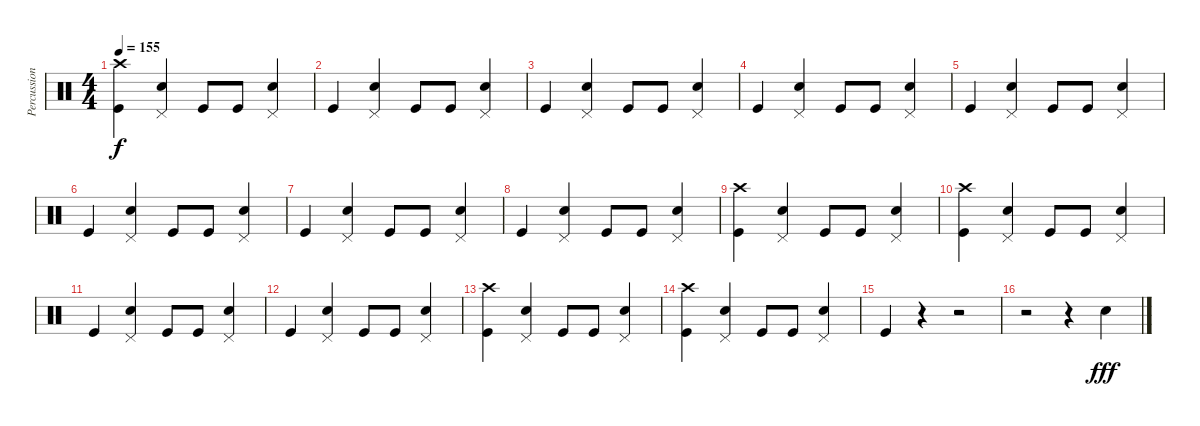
\track ("Percussion" "Percussion") {instrument percussion}
\staff {score}
\articulation defaults
\ts (4 4)
\tempo 155
\clef neutral
\ks c
("Kick (hit)" "Crash high (hit)").4{dy f} ("Snare (hit) 2" "Pedal Hi-Hat (hit)").4 "Kick (hit)".8 "Kick (hit)".8 ("Snare (hit) 2" "Pedal Hi-Hat (hit)").4 |
"Kick (hit)".4 ("Snare (hit) 2" "Pedal Hi-Hat (hit)").4 "Kick (hit)".8 "Kick (hit)".8 ("Snare (hit) 2" "Pedal Hi-Hat (hit)").4 |
"Kick (hit)".4 ("Snare (hit) 2" "Pedal Hi-Hat (hit)").4 "Kick (hit)".8 "Kick (hit)".8 ("Snare (hit) 2" "Pedal Hi-Hat (hit)").4 |
"Kick (hit)".4 ("Snare (hit) 2" "Pedal Hi-Hat (hit)").4 "Kick (hit)".8 "Kick (hit)".8 ("Snare (hit) 2" "Pedal Hi-Hat (hit)").4 |
"Kick (hit)".4 ("Snare (hit) 2" "Pedal Hi-Hat (hit)").4 "Kick (hit)".8 "Kick (hit)".8 ("Snare (hit) 2" "Pedal Hi-Hat (hit)").4 |
"Kick (hit)".4 ("Snare (hit) 2" "Pedal Hi-Hat (hit)").4 "Kick (hit)".8 "Kick (hit)".8 ("Snare (hit) 2" "Pedal Hi-Hat (hit)").4 |
"Kick (hit)".4 ("Snare (hit) 2" "Pedal Hi-Hat (hit)").4 "Kick (hit)".8 "Kick (hit)".8 ("Snare (hit) 2" "Pedal Hi-Hat (hit)").4 |
"Kick (hit)".4 ("Snare (hit) 2" "Pedal Hi-Hat (hit)").4 "Kick (hit)".8 "Kick (hit)".8 ("Snare (hit) 2" "Pedal Hi-Hat (hit)").4 |
("Kick (hit)" "Crash high (hit)").4 ("Snare (hit) 2" "Pedal Hi-Hat (hit)").4 "Kick (hit)".8 "Kick (hit)".8 ("Snare (hit) 2" "Pedal Hi-Hat (hit)").4 |
("Kick (hit)" "Crash high (hit)").4 ("Snare (hit) 2" "Pedal Hi-Hat (hit)").4 "Kick (hit)".8 "Kick (hit)".8 ("Snare (hit) 2" "Pedal Hi-Hat (hit)").4 |
"Kick (hit)".4 ("Snare (hit) 2" "Pedal Hi-Hat (hit)").4 "Kick (hit)".8 "Kick (hit)".8 ("Snare (hit) 2" "Pedal Hi-Hat (hit)").4 |
"Kick (hit)".4 ("Snare (hit) 2" "Pedal Hi-Hat (hit)").4 "Kick (hit)".8 "Kick (hit)".8 ("Snare (hit) 2" "Pedal Hi-Hat (hit)").4 |
("Kick (hit)" "Crash high (hit)").4 ("Snare (hit) 2" "Pedal Hi-Hat (hit)").4 "Kick (hit)".8 "Kick (hit)".8 ("Snare (hit) 2" "Pedal Hi-Hat (hit)").4 |
("Kick (hit)" "Crash high (hit)").4 ("Snare (hit) 2" "Pedal Hi-Hat (hit)").4 "Kick (hit)".8 "Kick (hit)".8 ("Snare (hit) 2" "Pedal Hi-Hat (hit)").4 |
"Kick (hit)".4 r.4 r.2 |
r.2 r.4 "Snare (hit) 2".4{dy fff}
